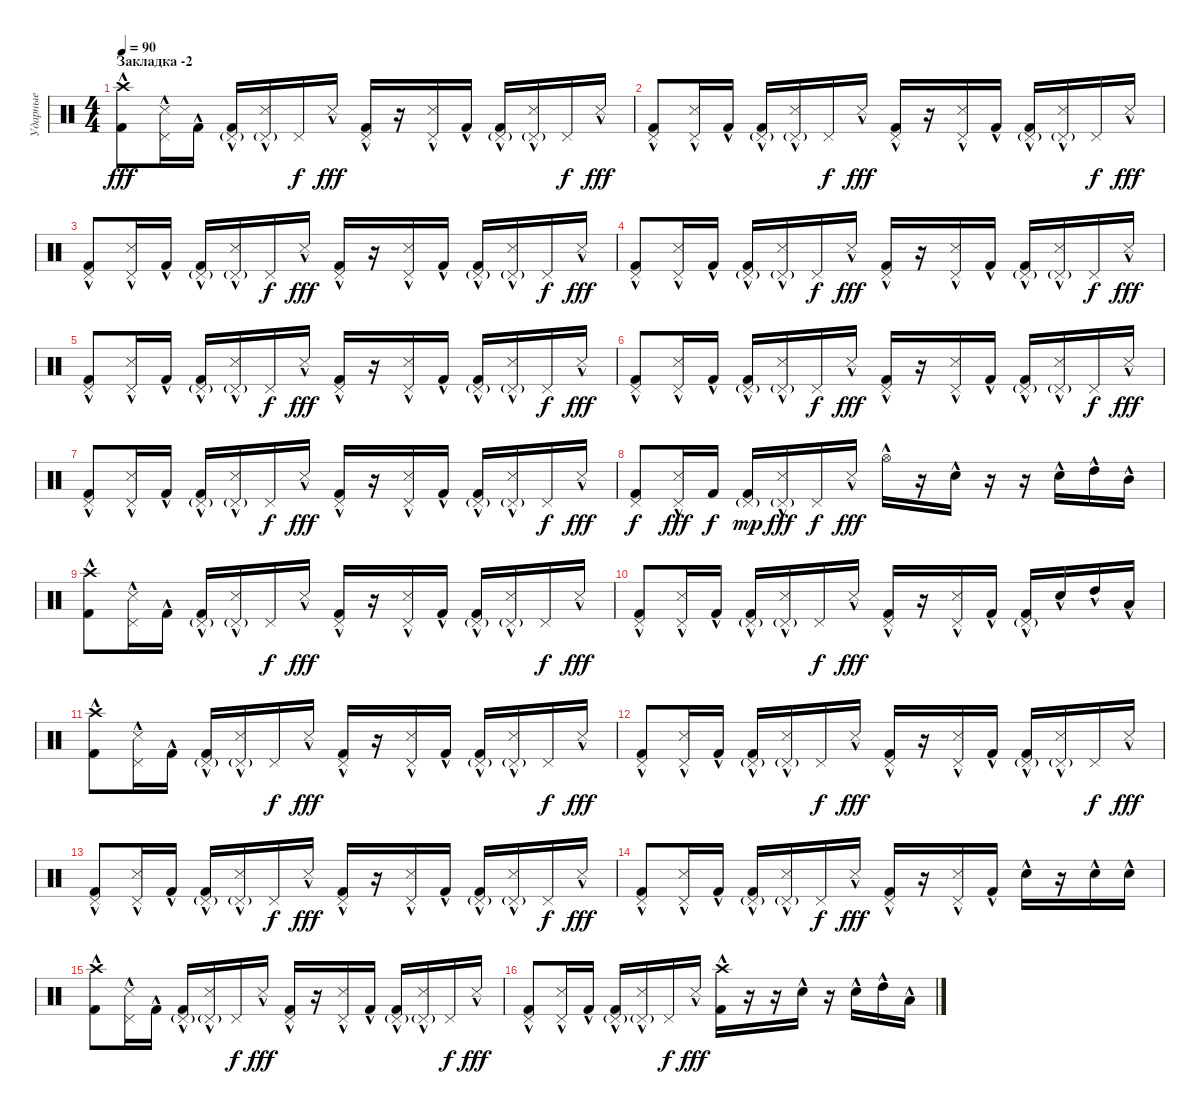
\track ("Ударные" "Ударные") {instrument percussion}
\staff {score}
\articulation defaults
\ts (4 4)
\section ("" "Закладка -2")
\tempo 90
\clef neutral
\ks c
("Crash high (hit)" "Kick (hit) 2"{hac}).8{dy fff} ("Pedal Hi-Hat (hit)" "Snare (side stick) 3"{hac}).16 "Kick (hit) 2"{hac}.16 ("Pedal Hi-Hat (hit)"{g} "Kick (hit) 2"{hac}).16 ("Pedal Hi-Hat (hit)"{g} "Snare (side stick) 3"{hac}).16 "Pedal Hi-Hat (hit)".16{dy f} "Snare (side stick) 3"{hac}.16{dy fff} ("Pedal Hi-Hat (hit)" "Kick (hit) 2"{hac}).16 r.16 ("Pedal Hi-Hat (hit)" "Snare (side stick) 3"{hac}).16 "Kick (hit) 2"{hac}.16 ("Pedal Hi-Hat (hit)"{g} "Kick (hit) 2"{hac}).16 ("Pedal Hi-Hat (hit)"{g} "Snare (side stick) 3"{hac}).16 "Pedal Hi-Hat (hit)".16{dy f} "Snare (side stick) 3"{hac}.16{dy fff} |
("Pedal Hi-Hat (hit)" "Kick (hit) 2"{hac}).8 ("Pedal Hi-Hat (hit)" "Snare (side stick) 3"{hac}).16 "Kick (hit) 2"{hac}.16 ("Pedal Hi-Hat (hit)"{g} "Kick (hit) 2"{hac}).16 ("Pedal Hi-Hat (hit)"{g} "Snare (side stick) 3"{hac}).16 "Pedal Hi-Hat (hit)".16{dy f} "Snare (side stick) 3"{hac}.16{dy fff} ("Pedal Hi-Hat (hit)" "Kick (hit) 2"{hac}).16 r.16 ("Pedal Hi-Hat (hit)" "Snare (side stick) 3"{hac}).16 "Kick (hit) 2"{hac}.16 ("Pedal Hi-Hat (hit)"{g} "Kick (hit) 2"{hac}).16 ("Pedal Hi-Hat (hit)"{g} "Snare (side stick) 3"{hac}).16 "Pedal Hi-Hat (hit)".16{dy f} "Snare (side stick) 3"{hac}.16{dy fff} |
("Pedal Hi-Hat (hit)" "Kick (hit) 2"{hac}).8 ("Pedal Hi-Hat (hit)" "Snare (side stick) 3"{hac}).16 "Kick (hit) 2"{hac}.16 ("Pedal Hi-Hat (hit)"{g} "Kick (hit) 2"{hac}).16 ("Pedal Hi-Hat (hit)"{g} "Snare (side stick) 3"{hac}).16 "Pedal Hi-Hat (hit)".16{dy f} "Snare (side stick) 3"{hac}.16{dy fff} ("Pedal Hi-Hat (hit)" "Kick (hit) 2"{hac}).16 r.16 ("Pedal Hi-Hat (hit)" "Snare (side stick) 3"{hac}).16 "Kick (hit) 2"{hac}.16 ("Pedal Hi-Hat (hit)"{g} "Kick (hit) 2"{hac}).16 ("Pedal Hi-Hat (hit)"{g} "Snare (side stick) 3"{hac}).16 "Pedal Hi-Hat (hit)".16{dy f} "Snare (side stick) 3"{hac}.16{dy fff} |
("Pedal Hi-Hat (hit)" "Kick (hit) 2"{hac}).8 ("Pedal Hi-Hat (hit)" "Snare (side stick) 3"{hac}).16 "Kick (hit) 2"{hac}.16 ("Pedal Hi-Hat (hit)"{g} "Kick (hit) 2"{hac}).16 ("Pedal Hi-Hat (hit)"{g} "Snare (side stick) 3"{hac}).16 "Pedal Hi-Hat (hit)".16{dy f} "Snare (side stick) 3"{hac}.16{dy fff} ("Pedal Hi-Hat (hit)" "Kick (hit) 2"{hac}).16 r.16 ("Pedal Hi-Hat (hit)" "Snare (side stick) 3"{hac}).16 "Kick (hit) 2"{hac}.16 ("Pedal Hi-Hat (hit)"{g} "Kick (hit) 2"{hac}).16 ("Pedal Hi-Hat (hit)"{g} "Snare (side stick) 3"{hac}).16 "Pedal Hi-Hat (hit)".16{dy f} "Snare (side stick) 3"{hac}.16{dy fff} |
("Pedal Hi-Hat (hit)" "Kick (hit) 2"{hac}).8 ("Pedal Hi-Hat (hit)" "Snare (side stick) 3"{hac}).16 "Kick (hit) 2"{hac}.16 ("Pedal Hi-Hat (hit)"{g} "Kick (hit) 2"{hac}).16 ("Pedal Hi-Hat (hit)"{g} "Snare (side stick) 3"{hac}).16 "Pedal Hi-Hat (hit)".16{dy f} "Snare (side stick) 3"{hac}.16{dy fff} ("Pedal Hi-Hat (hit)" "Kick (hit) 2"{hac}).16 r.16 ("Pedal Hi-Hat (hit)" "Snare (side stick) 3"{hac}).16 "Kick (hit) 2"{hac}.16 ("Pedal Hi-Hat (hit)"{g} "Kick (hit) 2"{hac}).16 ("Pedal Hi-Hat (hit)"{g} "Snare (side stick) 3"{hac}).16 "Pedal Hi-Hat (hit)".16{dy f} "Snare (side stick) 3"{hac}.16{dy fff} |
("Pedal Hi-Hat (hit)" "Kick (hit) 2"{hac}).8 ("Pedal Hi-Hat (hit)" "Snare (side stick) 3"{hac}).16 "Kick (hit) 2"{hac}.16 ("Pedal Hi-Hat (hit)"{g} "Kick (hit) 2"{hac}).16 ("Pedal Hi-Hat (hit)"{g} "Snare (side stick) 3"{hac}).16 "Pedal Hi-Hat (hit)".16{dy f} "Snare (side stick) 3"{hac}.16{dy fff} ("Pedal Hi-Hat (hit)" "Kick (hit) 2"{hac}).16 r.16 ("Pedal Hi-Hat (hit)" "Snare (side stick) 3"{hac}).16 "Kick (hit) 2"{hac}.16 ("Pedal Hi-Hat (hit)"{g} "Kick (hit) 2"{hac}).16 ("Pedal Hi-Hat (hit)"{g} "Snare (side stick) 3"{hac}).16 "Pedal Hi-Hat (hit)".16{dy f} "Snare (side stick) 3"{hac}.16{dy fff} |
("Pedal Hi-Hat (hit)" "Kick (hit) 2"{hac}).8 ("Pedal Hi-Hat (hit)" "Snare (side stick) 3"{hac}).16 "Kick (hit) 2"{hac}.16 ("Pedal Hi-Hat (hit)"{g} "Kick (hit) 2"{hac}).16 ("Pedal Hi-Hat (hit)"{g} "Snare (side stick) 3"{hac}).16 "Pedal Hi-Hat (hit)".16{dy f} "Snare (side stick) 3"{hac}.16{dy fff} ("Pedal Hi-Hat (hit)" "Kick (hit) 2"{hac}).16 r.16 ("Pedal Hi-Hat (hit)" "Snare (side stick) 3"{hac}).16 "Kick (hit) 2"{hac}.16 ("Pedal Hi-Hat (hit)"{g} "Kick (hit) 2"{hac}).16 ("Pedal Hi-Hat (hit)"{g} "Snare (side stick) 3"{hac}).16 "Pedal Hi-Hat (hit)".16{dy f} "Snare (side stick) 3"{hac}.16{dy fff} |
("Pedal Hi-Hat (hit)" "Kick (hit) 2").8{dy f} ("Pedal Hi-Hat (hit)" "Snare (side stick) 3"{hac}).16{dy fff} "Kick (hit) 2".16{dy f} ("Pedal Hi-Hat (hit)"{g} "Kick (hit) 2").16{dy mp} ("Pedal Hi-Hat (hit)"{g} "Snare (side stick) 3"{hac}).16{dy fff} "Pedal Hi-Hat (hit)".16{dy f} "Snare (side stick) 3"{hac}.16{dy fff} "Hi-Hat (open)"{hac}.16 r.16 "Electric Snare (hit)"{hac}.16 r.16 r.16 "Electric Snare (hit)"{hac}.16 "High Tom (hit)"{hac}.16 "Mid Tom (hit)"{hac}.16 |
("Crash high (hit)" "Kick (hit) 2"{hac}).8 ("Pedal Hi-Hat (hit)" "Snare (side stick) 3"{hac}).16 "Kick (hit) 2"{hac}.16 ("Pedal Hi-Hat (hit)"{g} "Kick (hit) 2"{hac}).16 ("Pedal Hi-Hat (hit)"{g} "Snare (side stick) 3"{hac}).16 "Pedal Hi-Hat (hit)".16{dy f} "Snare (side stick) 3"{hac}.16{dy fff} ("Pedal Hi-Hat (hit)" "Kick (hit) 2"{hac}).16 r.16 ("Pedal Hi-Hat (hit)" "Snare (side stick) 3"{hac}).16 "Kick (hit) 2"{hac}.16 ("Pedal Hi-Hat (hit)"{g} "Kick (hit) 2"{hac}).16 ("Pedal Hi-Hat (hit)"{g} "Snare (side stick) 3"{hac}).16 "Pedal Hi-Hat (hit)".16{dy f} "Snare (side stick) 3"{hac}.16{dy fff} |
("Pedal Hi-Hat (hit)" "Kick (hit) 2"{hac}).8 ("Pedal Hi-Hat (hit)" "Snare (side stick) 3"{hac}).16 "Kick (hit) 2"{hac}.16 ("Pedal Hi-Hat (hit)"{g} "Kick (hit) 2"{hac}).16 ("Pedal Hi-Hat (hit)"{g} "Snare (side stick) 3"{hac}).16 "Pedal Hi-Hat (hit)".16{dy f} "Snare (side stick) 3"{hac}.16{dy fff} ("Pedal Hi-Hat (hit)" "Kick (hit) 2"{hac}).16 r.16 ("Pedal Hi-Hat (hit)" "Snare (side stick) 3"{hac}).16 "Kick (hit) 2"{hac}.16 ("Pedal Hi-Hat (hit)"{g} "Kick (hit) 2"{hac}).16 "Electric Snare (hit)"{hac}.16 "High Tom (hit)"{hac}.16 "Low Tom (hit)"{hac}.16 |
("Crash high (hit)" "Kick (hit) 2"{hac}).8 ("Pedal Hi-Hat (hit)" "Snare (side stick) 3"{hac}).16 "Kick (hit) 2"{hac}.16 ("Pedal Hi-Hat (hit)"{g} "Kick (hit) 2"{hac}).16 ("Pedal Hi-Hat (hit)"{g} "Snare (side stick) 3"{hac}).16 "Pedal Hi-Hat (hit)".16{dy f} "Snare (side stick) 3"{hac}.16{dy fff} ("Pedal Hi-Hat (hit)" "Kick (hit) 2"{hac}).16 r.16 ("Pedal Hi-Hat (hit)" "Snare (side stick) 3"{hac}).16 "Kick (hit) 2"{hac}.16 ("Pedal Hi-Hat (hit)"{g} "Kick (hit) 2"{hac}).16 ("Pedal Hi-Hat (hit)"{g} "Snare (side stick) 3"{hac}).16 "Pedal Hi-Hat (hit)".16{dy f} "Snare (side stick) 3"{hac}.16{dy fff} |
("Pedal Hi-Hat (hit)" "Kick (hit) 2"{hac}).8 ("Pedal Hi-Hat (hit)" "Snare (side stick) 3"{hac}).16 "Kick (hit) 2"{hac}.16 ("Pedal Hi-Hat (hit)"{g} "Kick (hit) 2"{hac}).16 ("Pedal Hi-Hat (hit)"{g} "Snare (side stick) 3"{hac}).16 "Pedal Hi-Hat (hit)".16{dy f} "Snare (side stick) 3"{hac}.16{dy fff} ("Pedal Hi-Hat (hit)" "Kick (hit) 2"{hac}).16 r.16 ("Pedal Hi-Hat (hit)" "Snare (side stick) 3"{hac}).16 "Kick (hit) 2"{hac}.16 ("Pedal Hi-Hat (hit)"{g} "Kick (hit) 2"{hac}).16 ("Pedal Hi-Hat (hit)"{g} "Snare (side stick) 3"{hac}).16 "Pedal Hi-Hat (hit)".16{dy f} "Snare (side stick) 3"{hac}.16{dy fff} |
("Pedal Hi-Hat (hit)" "Kick (hit) 2"{hac}).8 ("Pedal Hi-Hat (hit)" "Snare (side stick) 3"{hac}).16 "Kick (hit) 2"{hac}.16 ("Pedal Hi-Hat (hit)"{g} "Kick (hit) 2"{hac}).16 ("Pedal Hi-Hat (hit)"{g} "Snare (side stick) 3"{hac}).16 "Pedal Hi-Hat (hit)".16{dy f} "Snare (side stick) 3"{hac}.16{dy fff} ("Pedal Hi-Hat (hit)" "Kick (hit) 2"{hac}).16 r.16 ("Pedal Hi-Hat (hit)" "Snare (side stick) 3"{hac}).16 "Kick (hit) 2"{hac}.16 ("Pedal Hi-Hat (hit)"{g} "Kick (hit) 2"{hac}).16 ("Pedal Hi-Hat (hit)"{g} "Snare (side stick) 3"{hac}).16 "Pedal Hi-Hat (hit)".16{dy f} "Snare (side stick) 3"{hac}.16{dy fff} |
("Pedal Hi-Hat (hit)" "Kick (hit) 2"{hac}).8 ("Pedal Hi-Hat (hit)" "Snare (side stick) 3"{hac}).16 "Kick (hit) 2"{hac}.16 ("Pedal Hi-Hat (hit)"{g} "Kick (hit) 2"{hac}).16 ("Pedal Hi-Hat (hit)"{g} "Snare (side stick) 3"{hac}).16 "Pedal Hi-Hat (hit)".16{dy f} "Snare (side stick) 3"{hac}.16{dy fff} ("Pedal Hi-Hat (hit)" "Kick (hit) 2"{hac}).16 r.16 ("Pedal Hi-Hat (hit)" "Snare (side stick) 3"{hac}).16 "Kick (hit) 2"{hac}.16 "Electric Snare (hit)"{hac}.16 r.16 "Electric Snare (hit)"{hac}.16 "Electric Snare (hit)"{hac}.16 |
("Crash high (hit)" "Kick (hit) 2"{hac}).8 ("Pedal Hi-Hat (hit)" "Snare (side stick) 3"{hac}).16 "Kick (hit) 2"{hac}.16 ("Pedal Hi-Hat (hit)"{g} "Kick (hit) 2"{hac}).16 ("Pedal Hi-Hat (hit)"{g} "Snare (side stick) 3"{hac}).16 "Pedal Hi-Hat (hit)".16{dy f} "Snare (side stick) 3"{hac}.16{dy fff} ("Pedal Hi-Hat (hit)" "Kick (hit) 2"{hac}).16 r.16 ("Pedal Hi-Hat (hit)" "Snare (side stick) 3"{hac}).16 "Kick (hit) 2"{hac}.16 ("Pedal Hi-Hat (hit)"{g} "Kick (hit) 2"{hac}).16 ("Pedal Hi-Hat (hit)"{g} "Snare (side stick) 3"{hac}).16 "Pedal Hi-Hat (hit)".16{dy f} "Snare (side stick) 3"{hac}.16{dy fff} |
("Pedal Hi-Hat (hit)" "Kick (hit) 2"{hac}).8 ("Pedal Hi-Hat (hit)" "Snare (side stick) 3"{hac}).16 "Kick (hit) 2"{hac}.16 ("Pedal Hi-Hat (hit)"{g} "Kick (hit) 2"{hac}).16 ("Pedal Hi-Hat (hit)"{g} "Snare (side stick) 3"{hac}).16 "Pedal Hi-Hat (hit)".16{dy f} "Snare (side stick) 3"{hac}.16{dy fff} ("Crash high (hit)" "Kick (hit) 2"{hac}).16 r.16 r.16 "Electric Snare (hit)"{hac}.16 r.16 "Electric Snare (hit)"{hac}.16 "High Tom (hit)"{hac}.16 "Low Tom (hit)"{hac}.16
